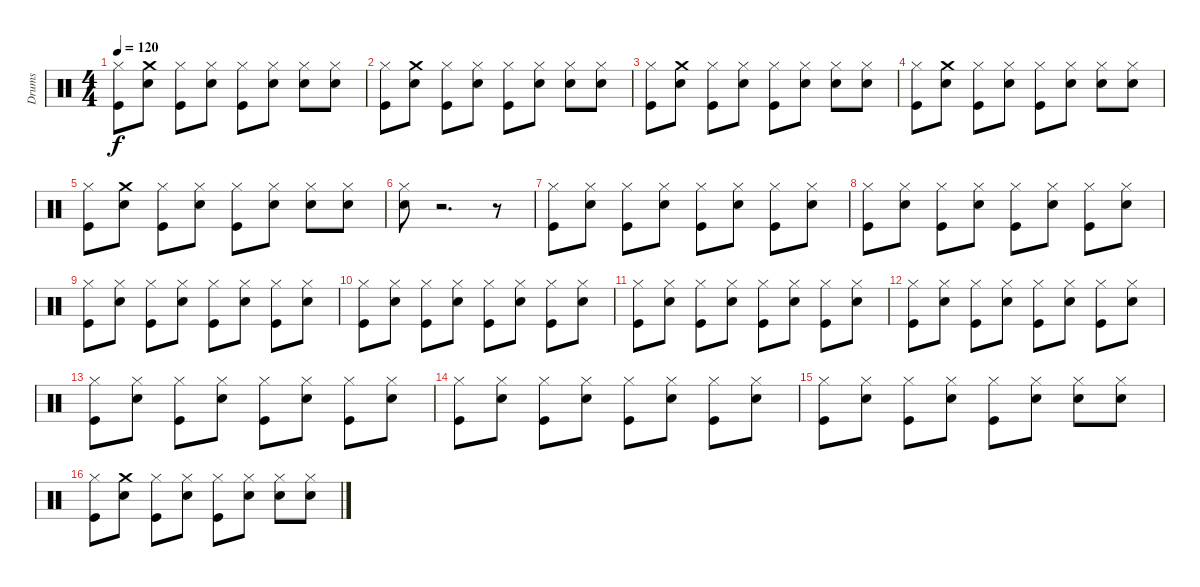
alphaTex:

\track ("Drums" "Drums") {instrument percussion}
\staff {score}
\articulation defaults
\ts (4 4)
\tempo 120
\clef neutral
\ks c
("Hi-Hat (closed)" "Kick (hit)").8{dy f} ("Crash medium (hit)" "Electric Snare (hit)").8 ("Hi-Hat (closed)" "Kick (hit)").8 ("Hi-Hat (closed)" "Electric Snare (hit)").8 ("Hi-Hat (closed)" "Kick (hit)").8 ("Hi-Hat (closed)" "Electric Snare (hit)").8 ("Hi-Hat (closed)" "Electric Snare (hit)").8 ("Hi-Hat (closed)" "Electric Snare (hit)").8 |
("Hi-Hat (closed)" "Kick (hit)").8 ("Crash medium (hit)" "Electric Snare (hit)").8 ("Hi-Hat (closed)" "Kick (hit)").8 ("Hi-Hat (closed)" "Electric Snare (hit)").8 ("Hi-Hat (closed)" "Kick (hit)").8 ("Hi-Hat (closed)" "Electric Snare (hit)").8 ("Hi-Hat (closed)" "Electric Snare (hit)").8 ("Hi-Hat (closed)" "Electric Snare (hit)").8 |
("Hi-Hat (closed)" "Kick (hit)").8 ("Crash medium (hit)" "Electric Snare (hit)").8 ("Hi-Hat (closed)" "Kick (hit)").8 ("Hi-Hat (closed)" "Electric Snare (hit)").8 ("Hi-Hat (closed)" "Kick (hit)").8 ("Hi-Hat (closed)" "Electric Snare (hit)").8 ("Hi-Hat (closed)" "Electric Snare (hit)").8 ("Hi-Hat (closed)" "Electric Snare (hit)").8 |
("Hi-Hat (closed)" "Kick (hit)").8 ("Crash medium (hit)" "Electric Snare (hit)").8 ("Hi-Hat (closed)" "Kick (hit)").8 ("Hi-Hat (closed)" "Electric Snare (hit)").8 ("Hi-Hat (closed)" "Kick (hit)").8 ("Hi-Hat (closed)" "Electric Snare (hit)").8 ("Hi-Hat (closed)" "Electric Snare (hit)").8 ("Hi-Hat (closed)" "Electric Snare (hit)").8 |
("Hi-Hat (closed)" "Kick (hit)").8 ("Crash medium (hit)" "Electric Snare (hit)").8 ("Hi-Hat (closed)" "Kick (hit)").8 ("Hi-Hat (closed)" "Electric Snare (hit)").8 ("Hi-Hat (closed)" "Kick (hit)").8 ("Hi-Hat (closed)" "Electric Snare (hit)").8 ("Hi-Hat (closed)" "Electric Snare (hit)").8 ("Hi-Hat (closed)" "Electric Snare (hit)").8 |
("Hi-Hat (closed)" "Electric Snare (hit)").8 r.2{d} r.8 |
("Hi-Hat (closed)" "Kick (hit)").8 ("Hi-Hat (closed)" "Electric Snare (hit)").8 ("Hi-Hat (closed)" "Kick (hit)").8 ("Hi-Hat (closed)" "Electric Snare (hit)").8 ("Hi-Hat (closed)" "Kick (hit)").8 ("Hi-Hat (closed)" "Electric Snare (hit)").8 ("Hi-Hat (closed)" "Kick (hit)").8 ("Hi-Hat (closed)" "Electric Snare (hit)").8 |
("Hi-Hat (closed)" "Kick (hit)").8 ("Hi-Hat (closed)" "Electric Snare (hit)").8 ("Hi-Hat (closed)" "Kick (hit)").8 ("Hi-Hat (closed)" "Electric Snare (hit)").8 ("Hi-Hat (closed)" "Kick (hit)").8 ("Hi-Hat (closed)" "Electric Snare (hit)").8 ("Hi-Hat (closed)" "Kick (hit)").8 ("Hi-Hat (closed)" "Electric Snare (hit)").8 |
("Hi-Hat (closed)" "Kick (hit)").8 ("Hi-Hat (closed)" "Electric Snare (hit)").8 ("Hi-Hat (closed)" "Kick (hit)").8 ("Hi-Hat (closed)" "Electric Snare (hit)").8 ("Hi-Hat (closed)" "Kick (hit)").8 ("Hi-Hat (closed)" "Electric Snare (hit)").8 ("Hi-Hat (closed)" "Kick (hit)").8 ("Hi-Hat (closed)" "Electric Snare (hit)").8 |
("Hi-Hat (closed)" "Kick (hit)").8 ("Hi-Hat (closed)" "Electric Snare (hit)").8 ("Hi-Hat (closed)" "Kick (hit)").8 ("Hi-Hat (closed)" "Electric Snare (hit)").8 ("Hi-Hat (closed)" "Kick (hit)").8 ("Hi-Hat (closed)" "Electric Snare (hit)").8 ("Hi-Hat (closed)" "Kick (hit)").8 ("Hi-Hat (closed)" "Electric Snare (hit)").8 |
("Hi-Hat (closed)" "Kick (hit)").8 ("Hi-Hat (closed)" "Electric Snare (hit)").8 ("Hi-Hat (closed)" "Kick (hit)").8 ("Hi-Hat (closed)" "Electric Snare (hit)").8 ("Hi-Hat (closed)" "Kick (hit)").8 ("Hi-Hat (closed)" "Electric Snare (hit)").8 ("Hi-Hat (closed)" "Kick (hit)").8 ("Hi-Hat (closed)" "Electric Snare (hit)").8 |
("Hi-Hat (closed)" "Kick (hit)").8 ("Hi-Hat (closed)" "Electric Snare (hit)").8 ("Hi-Hat (closed)" "Kick (hit)").8 ("Hi-Hat (closed)" "Electric Snare (hit)").8 ("Hi-Hat (closed)" "Kick (hit)").8 ("Hi-Hat (closed)" "Electric Snare (hit)").8 ("Hi-Hat (closed)" "Kick (hit)").8 ("Hi-Hat (closed)" "Electric Snare (hit)").8 |
("Hi-Hat (closed)" "Kick (hit)").8 ("Hi-Hat (closed)" "Electric Snare (hit)").8 ("Hi-Hat (closed)" "Kick (hit)").8 ("Hi-Hat (closed)" "Electric Snare (hit)").8 ("Hi-Hat (closed)" "Kick (hit)").8 ("Hi-Hat (closed)" "Electric Snare (hit)").8 ("Hi-Hat (closed)" "Kick (hit)").8 ("Hi-Hat (closed)" "Electric Snare (hit)").8 |
("Hi-Hat (closed)" "Kick (hit)").8 ("Hi-Hat (closed)" "Electric Snare (hit)").8 ("Hi-Hat (closed)" "Kick (hit)").8 ("Hi-Hat (closed)" "Electric Snare (hit)").8 ("Hi-Hat (closed)" "Kick (hit)").8 ("Hi-Hat (closed)" "Electric Snare (hit)").8 ("Hi-Hat (closed)" "Kick (hit)").8 ("Hi-Hat (closed)" "Electric Snare (hit)").8 |
("Hi-Hat (closed)" "Kick (hit)").8 ("Hi-Hat (closed)" "Electric Snare (hit)").8 ("Hi-Hat (closed)" "Kick (hit)").8 ("Hi-Hat (closed)" "Electric Snare (hit)").8 ("Hi-Hat (closed)" "Kick (hit)").8 ("Hi-Hat (closed)" "Electric Snare (hit)").8 ("Hi-Hat (closed)" "Electric Snare (hit)").8 ("Hi-Hat (closed)" "Electric Snare (hit)").8 |
("Hi-Hat (closed)" "Kick (hit)").8 ("Crash medium (hit)" "Electric Snare (hit)").8 ("Hi-Hat (closed)" "Kick (hit)").8 ("Hi-Hat (closed)" "Electric Snare (hit)").8 ("Hi-Hat (closed)" "Kick (hit)").8 ("Hi-Hat (closed)" "Electric Snare (hit)").8 ("Hi-Hat (closed)" "Electric Snare (hit)").8 ("Hi-Hat (closed)" "Electric Snare (hit)").8
